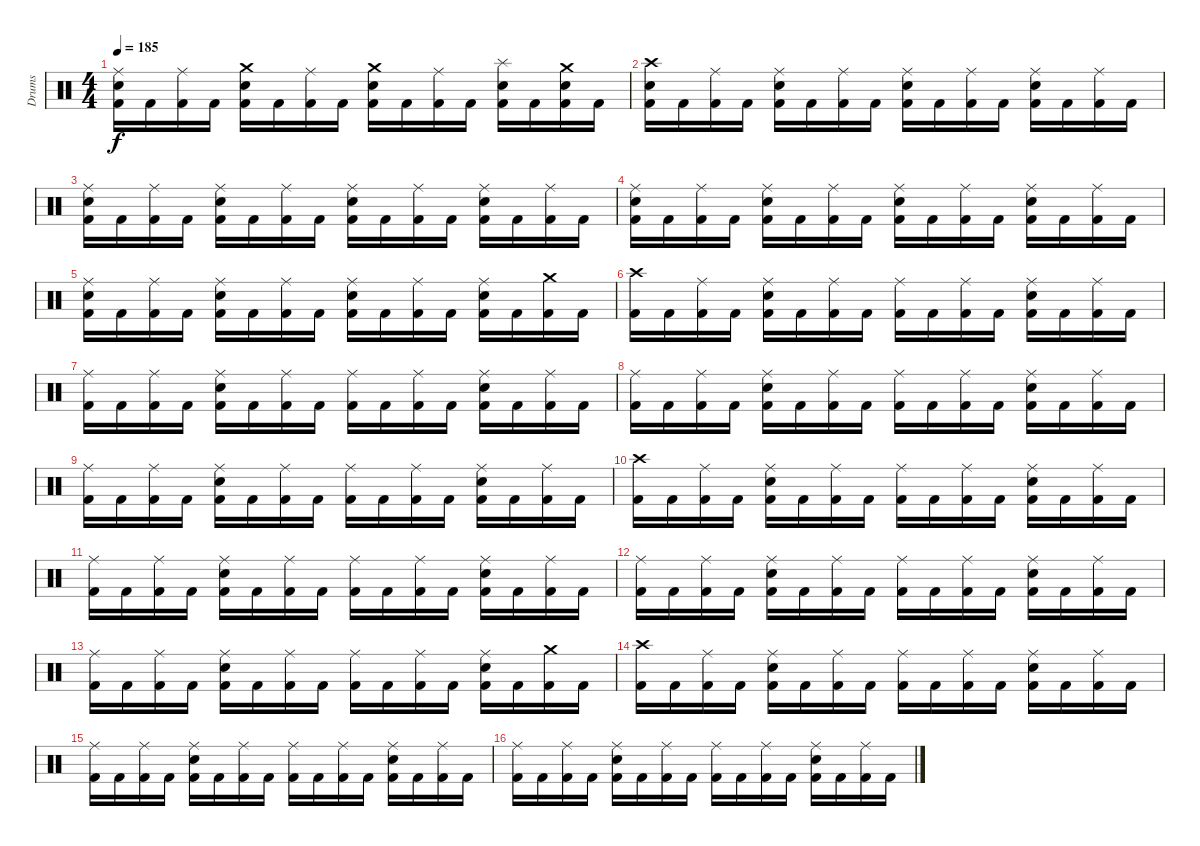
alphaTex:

\track ("Drums" "Drums") {instrument percussion}
\staff {score}
\articulation defaults
\ts (4 4)
\tempo 185
\clef neutral
\ks c
("Ride (middle)" "Electric Snare (hit)" "Kick (hit) 2").16{dy f} "Kick (hit) 2".16 ("Ride (middle)" "Kick (hit) 2").16 "Kick (hit) 2".16 ("Crash medium (hit)" "Electric Snare (hit)" "Kick (hit) 2").16 "Kick (hit) 2".16 ("Ride (middle)" "Kick (hit) 2").16 "Kick (hit) 2".16 ("Crash medium (hit)" "Electric Snare (hit)" "Kick (hit) 2").16 "Kick (hit) 2".16 ("Ride (middle)" "Kick (hit) 2").16 "Kick (hit) 2".16 ("Splash (hit)" "Electric Snare (hit)" "Kick (hit) 2").16 "Kick (hit) 2".16 ("Crash medium (hit)" "Electric Snare (hit)" "Kick (hit) 2").16 "Kick (hit) 2".16 |
("Crash high (hit)" "Electric Snare (hit)" "Kick (hit) 2").16 "Kick (hit) 2".16 ("Ride (middle)" "Kick (hit) 2").16 "Kick (hit) 2".16 ("Ride (middle)" "Electric Snare (hit)" "Kick (hit) 2").16 "Kick (hit) 2".16 ("Ride (middle)" "Kick (hit) 2").16 "Kick (hit) 2".16 ("Ride (middle)" "Electric Snare (hit)" "Kick (hit) 2").16 "Kick (hit) 2".16 ("Ride (middle)" "Kick (hit) 2").16 "Kick (hit) 2".16 ("Ride (middle)" "Electric Snare (hit)" "Kick (hit) 2").16 "Kick (hit) 2".16 ("Ride (middle)" "Kick (hit) 2").16 "Kick (hit) 2".16 |
("Ride (middle)" "Electric Snare (hit)" "Kick (hit) 2").16 "Kick (hit) 2".16 ("Ride (middle)" "Kick (hit) 2").16 "Kick (hit) 2".16 ("Ride (middle)" "Electric Snare (hit)" "Kick (hit) 2").16 "Kick (hit) 2".16 ("Ride (middle)" "Kick (hit) 2").16 "Kick (hit) 2".16 ("Ride (middle)" "Electric Snare (hit)" "Kick (hit) 2").16 "Kick (hit) 2".16 ("Ride (middle)" "Kick (hit) 2").16 "Kick (hit) 2".16 ("Ride (middle)" "Electric Snare (hit)" "Kick (hit) 2").16 "Kick (hit) 2".16 ("Ride (middle)" "Kick (hit) 2").16 "Kick (hit) 2".16 |
("Ride (middle)" "Electric Snare (hit)" "Kick (hit) 2").16 "Kick (hit) 2".16 ("Ride (middle)" "Kick (hit) 2").16 "Kick (hit) 2".16 ("Ride (middle)" "Electric Snare (hit)" "Kick (hit) 2").16 "Kick (hit) 2".16 ("Ride (middle)" "Kick (hit) 2").16 "Kick (hit) 2".16 ("Ride (middle)" "Electric Snare (hit)" "Kick (hit) 2").16 "Kick (hit) 2".16 ("Ride (middle)" "Kick (hit) 2").16 "Kick (hit) 2".16 ("Ride (middle)" "Electric Snare (hit)" "Kick (hit) 2").16 "Kick (hit) 2".16 ("Ride (middle)" "Kick (hit) 2").16 "Kick (hit) 2".16 |
("Ride (middle)" "Electric Snare (hit)" "Kick (hit) 2").16 "Kick (hit) 2".16 ("Ride (middle)" "Kick (hit) 2").16 "Kick (hit) 2".16 ("Ride (middle)" "Electric Snare (hit)" "Kick (hit) 2").16 "Kick (hit) 2".16 ("Ride (middle)" "Kick (hit) 2").16 "Kick (hit) 2".16 ("Ride (middle)" "Electric Snare (hit)" "Kick (hit) 2").16 "Kick (hit) 2".16 ("Ride (middle)" "Kick (hit) 2").16 "Kick (hit) 2".16 ("Ride (middle)" "Electric Snare (hit)" "Kick (hit) 2").16 "Kick (hit) 2".16 ("Crash medium (hit)" "Kick (hit) 2").16 "Kick (hit) 2".16 |
("Crash high (hit)" "Kick (hit) 2").16 "Kick (hit) 2".16 ("Ride (middle)" "Kick (hit) 2").16 "Kick (hit) 2".16 ("Ride (middle)" "Electric Snare (hit)" "Kick (hit) 2").16 "Kick (hit) 2".16 ("Ride (middle)" "Kick (hit) 2").16 "Kick (hit) 2".16 ("Ride (middle)" "Kick (hit) 2").16 "Kick (hit) 2".16 ("Ride (middle)" "Kick (hit) 2").16 "Kick (hit) 2".16 ("Ride (middle)" "Electric Snare (hit)" "Kick (hit) 2").16 "Kick (hit) 2".16 ("Ride (middle)" "Kick (hit) 2").16 "Kick (hit) 2".16 |
("Ride (middle)" "Kick (hit) 2").16 "Kick (hit) 2".16 ("Ride (middle)" "Kick (hit) 2").16 "Kick (hit) 2".16 ("Ride (middle)" "Electric Snare (hit)" "Kick (hit) 2").16 "Kick (hit) 2".16 ("Ride (middle)" "Kick (hit) 2").16 "Kick (hit) 2".16 ("Ride (middle)" "Kick (hit) 2").16 "Kick (hit) 2".16 ("Ride (middle)" "Kick (hit) 2").16 "Kick (hit) 2".16 ("Ride (middle)" "Electric Snare (hit)" "Kick (hit) 2").16 "Kick (hit) 2".16 ("Ride (middle)" "Kick (hit) 2").16 "Kick (hit) 2".16 |
("Ride (middle)" "Kick (hit) 2").16 "Kick (hit) 2".16 ("Ride (middle)" "Kick (hit) 2").16 "Kick (hit) 2".16 ("Ride (middle)" "Electric Snare (hit)" "Kick (hit) 2").16 "Kick (hit) 2".16 ("Ride (middle)" "Kick (hit) 2").16 "Kick (hit) 2".16 ("Ride (middle)" "Kick (hit) 2").16 "Kick (hit) 2".16 ("Ride (middle)" "Kick (hit) 2").16 "Kick (hit) 2".16 ("Ride (middle)" "Electric Snare (hit)" "Kick (hit) 2").16 "Kick (hit) 2".16 ("Ride (middle)" "Kick (hit) 2").16 "Kick (hit) 2".16 |
("Ride (middle)" "Kick (hit) 2").16 "Kick (hit) 2".16 ("Ride (middle)" "Kick (hit) 2").16 "Kick (hit) 2".16 ("Ride (middle)" "Electric Snare (hit)" "Kick (hit) 2").16 "Kick (hit) 2".16 ("Ride (middle)" "Kick (hit) 2").16 "Kick (hit) 2".16 ("Ride (middle)" "Kick (hit) 2").16 "Kick (hit) 2".16 ("Ride (middle)" "Kick (hit) 2").16 "Kick (hit) 2".16 ("Ride (middle)" "Electric Snare (hit)" "Kick (hit) 2").16 "Kick (hit) 2".16 ("Ride (middle)" "Kick (hit) 2").16 "Kick (hit) 2".16 |
("Crash high (hit)" "Kick (hit) 2").16 "Kick (hit) 2".16 ("Ride (middle)" "Kick (hit) 2").16 "Kick (hit) 2".16 ("Ride (middle)" "Electric Snare (hit)" "Kick (hit) 2").16 "Kick (hit) 2".16 ("Ride (middle)" "Kick (hit) 2").16 "Kick (hit) 2".16 ("Ride (middle)" "Kick (hit) 2").16 "Kick (hit) 2".16 ("Ride (middle)" "Kick (hit) 2").16 "Kick (hit) 2".16 ("Ride (middle)" "Electric Snare (hit)" "Kick (hit) 2").16 "Kick (hit) 2".16 ("Ride (middle)" "Kick (hit) 2").16 "Kick (hit) 2".16 |
("Ride (middle)" "Kick (hit) 2").16 "Kick (hit) 2".16 ("Ride (middle)" "Kick (hit) 2").16 "Kick (hit) 2".16 ("Ride (middle)" "Electric Snare (hit)" "Kick (hit) 2").16 "Kick (hit) 2".16 ("Ride (middle)" "Kick (hit) 2").16 "Kick (hit) 2".16 ("Ride (middle)" "Kick (hit) 2").16 "Kick (hit) 2".16 ("Ride (middle)" "Kick (hit) 2").16 "Kick (hit) 2".16 ("Ride (middle)" "Electric Snare (hit)" "Kick (hit) 2").16 "Kick (hit) 2".16 ("Ride (middle)" "Kick (hit) 2").16 "Kick (hit) 2".16 |
("Ride (middle)" "Kick (hit) 2").16 "Kick (hit) 2".16 ("Ride (middle)" "Kick (hit) 2").16 "Kick (hit) 2".16 ("Ride (middle)" "Electric Snare (hit)" "Kick (hit) 2").16 "Kick (hit) 2".16 ("Ride (middle)" "Kick (hit) 2").16 "Kick (hit) 2".16 ("Ride (middle)" "Kick (hit) 2").16 "Kick (hit) 2".16 ("Ride (middle)" "Kick (hit) 2").16 "Kick (hit) 2".16 ("Ride (middle)" "Electric Snare (hit)" "Kick (hit) 2").16 "Kick (hit) 2".16 ("Ride (middle)" "Kick (hit) 2").16 "Kick (hit) 2".16 |
("Ride (middle)" "Kick (hit) 2").16 "Kick (hit) 2".16 ("Ride (middle)" "Kick (hit) 2").16 "Kick (hit) 2".16 ("Ride (middle)" "Electric Snare (hit)" "Kick (hit) 2").16 "Kick (hit) 2".16 ("Ride (middle)" "Kick (hit) 2").16 "Kick (hit) 2".16 ("Ride (middle)" "Kick (hit) 2").16 "Kick (hit) 2".16 ("Ride (middle)" "Kick (hit) 2").16 "Kick (hit) 2".16 ("Ride (middle)" "Electric Snare (hit)" "Kick (hit) 2").16 "Kick (hit) 2".16 ("Crash medium (hit)" "Kick (hit) 2").16 "Kick (hit) 2".16 |
("Crash high (hit)" "Kick (hit) 2").16{volume 12} "Kick (hit) 2".16 ("Ride (middle)" "Kick (hit) 2").16 "Kick (hit) 2".16 ("Ride (middle)" "Electric Snare (hit)" "Kick (hit) 2").16 "Kick (hit) 2".16 ("Ride (middle)" "Kick (hit) 2").16 "Kick (hit) 2".16 ("Ride (middle)" "Kick (hit) 2").16 "Kick (hit) 2".16 ("Ride (middle)" "Kick (hit) 2").16 "Kick (hit) 2".16 ("Ride (middle)" "Electric Snare (hit)" "Kick (hit) 2").16 "Kick (hit) 2".16 ("Ride (middle)" "Kick (hit) 2").16 "Kick (hit) 2".16 |
("Ride (middle)" "Kick (hit) 2").16 "Kick (hit) 2".16 ("Ride (middle)" "Kick (hit) 2").16 "Kick (hit) 2".16 ("Ride (middle)" "Electric Snare (hit)" "Kick (hit) 2").16 "Kick (hit) 2".16 ("Ride (middle)" "Kick (hit) 2").16 "Kick (hit) 2".16 ("Ride (middle)" "Kick (hit) 2").16 "Kick (hit) 2".16 ("Ride (middle)" "Kick (hit) 2").16 "Kick (hit) 2".16 ("Ride (middle)" "Electric Snare (hit)" "Kick (hit) 2").16 "Kick (hit) 2".16 ("Ride (middle)" "Kick (hit) 2").16 "Kick (hit) 2".16 |
("Ride (middle)" "Kick (hit) 2").16{volume 10} "Kick (hit) 2".16 ("Ride (middle)" "Kick (hit) 2").16 "Kick (hit) 2".16 ("Ride (middle)" "Electric Snare (hit)" "Kick (hit) 2").16 "Kick (hit) 2".16 ("Ride (middle)" "Kick (hit) 2").16 "Kick (hit) 2".16 ("Ride (middle)" "Kick (hit) 2").16 "Kick (hit) 2".16 ("Ride (middle)" "Kick (hit) 2").16 "Kick (hit) 2".16 ("Ride (middle)" "Electric Snare (hit)" "Kick (hit) 2").16 "Kick (hit) 2".16 ("Ride (middle)" "Kick (hit) 2").16 "Kick (hit) 2".16
